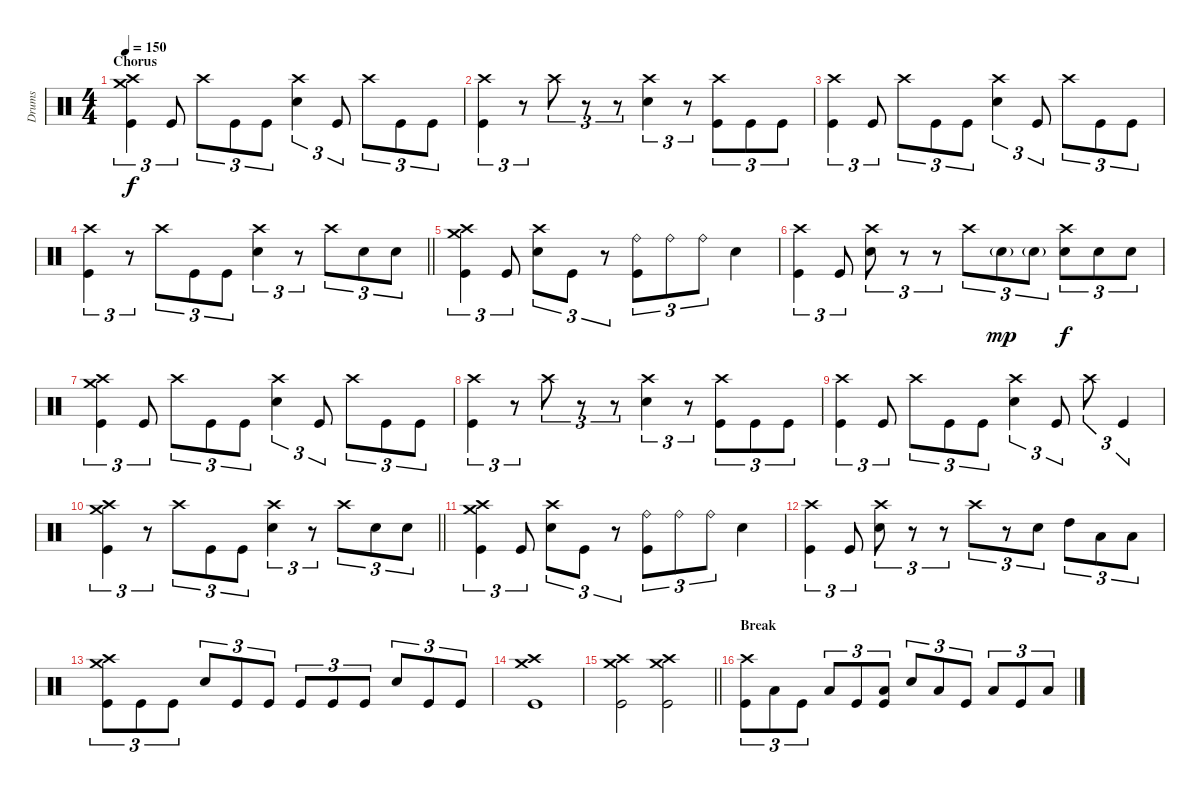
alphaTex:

\track ("Drums" "Drums") {instrument percussion}
\staff {score}
\articulation defaults
\ts (4 4)
\section ("" "Chorus")
\tempo 150
\clef neutral
\ks c
("Crash high (hit)" "Crash medium (hit)" "Kick (hit)").4{tu (3 2) dy f} "Kick (hit)".8{tu (3 2)} "Crash high (hit)".8{tu (3 2)} "Kick (hit)".8{tu (3 2)} "Kick (hit)".8{tu (3 2)} ("Crash high (hit)" "Electric Snare (hit)").4{tu (3 2)} "Kick (hit)".8{tu (3 2)} "Crash high (hit)".8{tu (3 2)} "Kick (hit)".8{tu (3 2)} "Kick (hit)".8{tu (3 2)} |
("Crash high (hit)" "Kick (hit)").4{tu (3 2)} r.8{tu (3 2)} "Crash high (hit)".8{tu (3 2)} r.8{tu (3 2)} r.8{tu (3 2)} ("Crash high (hit)" "Electric Snare (hit)").4{tu (3 2)} r.8{tu (3 2)} ("Crash high (hit)" "Kick (hit)").8{tu (3 2)} "Kick (hit)".8{tu (3 2)} "Kick (hit)".8{tu (3 2)} |
("Crash high (hit)" "Kick (hit)").4{tu (3 2)} "Kick (hit)".8{tu (3 2)} "Crash high (hit)".8{tu (3 2)} "Kick (hit)".8{tu (3 2)} "Kick (hit)".8{tu (3 2)} ("Crash high (hit)" "Electric Snare (hit)").4{tu (3 2)} "Kick (hit)".8{tu (3 2)} "Crash high (hit)".8{tu (3 2)} "Kick (hit)".8{tu (3 2)} "Kick (hit)".8{tu (3 2)} |
\barLineRight lightlight
("Crash high (hit)" "Kick (hit)").4{tu (3 2)} r.8{tu (3 2)} "Crash high (hit)".8{tu (3 2)} "Kick (hit)".8{tu (3 2)} "Kick (hit)".8{tu (3 2)} ("Crash high (hit)" "Electric Snare (hit)").4{tu (3 2)} r.8{tu (3 2)} "Crash high (hit)".8{tu (3 2)} "Electric Snare (hit)".8{tu (3 2)} "Electric Snare (hit)".8{tu (3 2)} |
("Crash high (hit)" "Crash medium (hit)" "Kick (hit)").4{tu (3 2)} "Kick (hit)".8{tu (3 2)} ("Crash high (hit)" "Electric Snare (hit)").8{tu (3 2)} "Kick (hit)".8{tu (3 2)} r.8{tu (3 2)} ("Ride (bell)" "Kick (hit)").8{tu (3 2)} "Ride (bell)".8{tu (3 2)} "Ride (bell)".8{tu (3 2)} "Electric Snare (hit)".4 |
("Crash high (hit)" "Kick (hit)").4{tu (3 2)} "Kick (hit)".8{tu (3 2)} ("Crash high (hit)" "Electric Snare (hit)").8{tu (3 2)} r.8{tu (3 2)} r.8{tu (3 2)} "Crash high (hit)".8{tu (3 2)} "Electric Snare (hit)"{g}.8{tu (3 2) dy mp} "Electric Snare (hit)"{g}.8{tu (3 2)} ("Crash high (hit)" "Electric Snare (hit)").8{tu (3 2) dy f} "Electric Snare (hit)".8{tu (3 2)} "Electric Snare (hit)".8{tu (3 2)} |
("Crash high (hit)" "Crash medium (hit)" "Kick (hit)").4{tu (3 2)} "Kick (hit)".8{tu (3 2)} "Crash high (hit)".8{tu (3 2)} "Kick (hit)".8{tu (3 2)} "Kick (hit)".8{tu (3 2)} ("Crash high (hit)" "Electric Snare (hit)").4{tu (3 2)} "Kick (hit)".8{tu (3 2)} "Crash high (hit)".8{tu (3 2)} "Kick (hit)".8{tu (3 2)} "Kick (hit)".8{tu (3 2)} |
("Crash high (hit)" "Kick (hit)").4{tu (3 2)} r.8{tu (3 2)} "Crash high (hit)".8{tu (3 2)} r.8{tu (3 2)} r.8{tu (3 2)} ("Crash high (hit)" "Electric Snare (hit)").4{tu (3 2)} r.8{tu (3 2)} ("Crash high (hit)" "Kick (hit)").8{tu (3 2)} "Kick (hit)".8{tu (3 2)} "Kick (hit)".8{tu (3 2)} |
("Crash high (hit)" "Kick (hit)").4{tu (3 2)} "Kick (hit)".8{tu (3 2)} "Crash high (hit)".8{tu (3 2)} "Kick (hit)".8{tu (3 2)} "Kick (hit)".8{tu (3 2)} ("Crash high (hit)" "Electric Snare (hit)").4{tu (3 2)} "Kick (hit)".8{tu (3 2)} "Crash high (hit)".8{tu (3 2)} "Kick (hit)".4{tu (3 2)} |
\barLineRight lightlight
("Crash high (hit)" "Crash medium (hit)" "Kick (hit)").4{tu (3 2)} r.8{tu (3 2)} "Crash high (hit)".8{tu (3 2)} "Kick (hit)".8{tu (3 2)} "Kick (hit)".8{tu (3 2)} ("Crash high (hit)" "Electric Snare (hit)").4{tu (3 2)} r.8{tu (3 2)} "Crash high (hit)".8{tu (3 2)} "Electric Snare (hit)".8{tu (3 2)} "Electric Snare (hit)".8{tu (3 2)} |
("Crash high (hit)" "Crash medium (hit)" "Kick (hit)").4{tu (3 2)} "Kick (hit)".8{tu (3 2)} ("Crash high (hit)" "Electric Snare (hit)").8{tu (3 2)} "Kick (hit)".8{tu (3 2)} r.8{tu (3 2)} ("Ride (bell)" "Kick (hit)").8{tu (3 2)} "Ride (bell)".8{tu (3 2)} "Ride (bell)".8{tu (3 2)} "Electric Snare (hit)".4 |
("Crash high (hit)" "Kick (hit)").4{tu (3 2)} "Kick (hit)".8{tu (3 2)} ("Crash high (hit)" "Electric Snare (hit)").8{tu (3 2)} r.8{tu (3 2)} r.8{tu (3 2)} "Crash high (hit)".8{tu (3 2)} r.8{tu (3 2)} "Electric Snare (hit)".8{tu (3 2)} "High Tom (hit)".8{tu (3 2)} "Low Tom (hit)".8{tu (3 2)} "Low Floor Tom (hit)".8{tu (3 2)} |
("Crash high (hit)" "Crash medium (hit)" "Kick (hit)").8{tu (3 2)} "Kick (hit)".8{tu (3 2)} "Kick (hit)".8{tu (3 2)} "Electric Snare (hit)".8{tu (3 2)} "Kick (hit)".8{tu (3 2)} "Kick (hit)".8{tu (3 2)} "Kick (hit)".8{tu (3 2)} "Kick (hit)".8{tu (3 2)} "Kick (hit)".8{tu (3 2)} "Electric Snare (hit)".8{tu (3 2)} "Kick (hit)".8{tu (3 2)} "Kick (hit)".8{tu (3 2)} |
("Crash high (hit)" "Crash medium (hit)" "Kick (hit)").1 |
\barLineRight lightlight
("Crash high (hit)" "Crash medium (hit)" "Kick (hit)").2 ("Crash high (hit)" "Crash medium (hit)" "Kick (hit)").2 |
\section ("" "Break")
("Crash high (hit)" "Kick (hit)").8{tu (3 2)} "Low Floor Tom (hit)".8{tu (3 2)} "Kick (hit)".8{tu (3 2)} "Low Tom (hit)".8{tu (3 2)} "Kick (hit)".8{tu (3 2)} ("Low Floor Tom (hit)" "Kick (hit)").8{tu (3 2)} "Electric Snare (hit)".8{tu (3 2)} "Low Floor Tom (hit)".8{tu (3 2)} "Kick (hit)".8{tu (3 2)} "Low Tom (hit)".8{tu (3 2)} "Kick (hit)".8{tu (3 2)} "Low Floor Tom (hit)".8{tu (3 2)}
